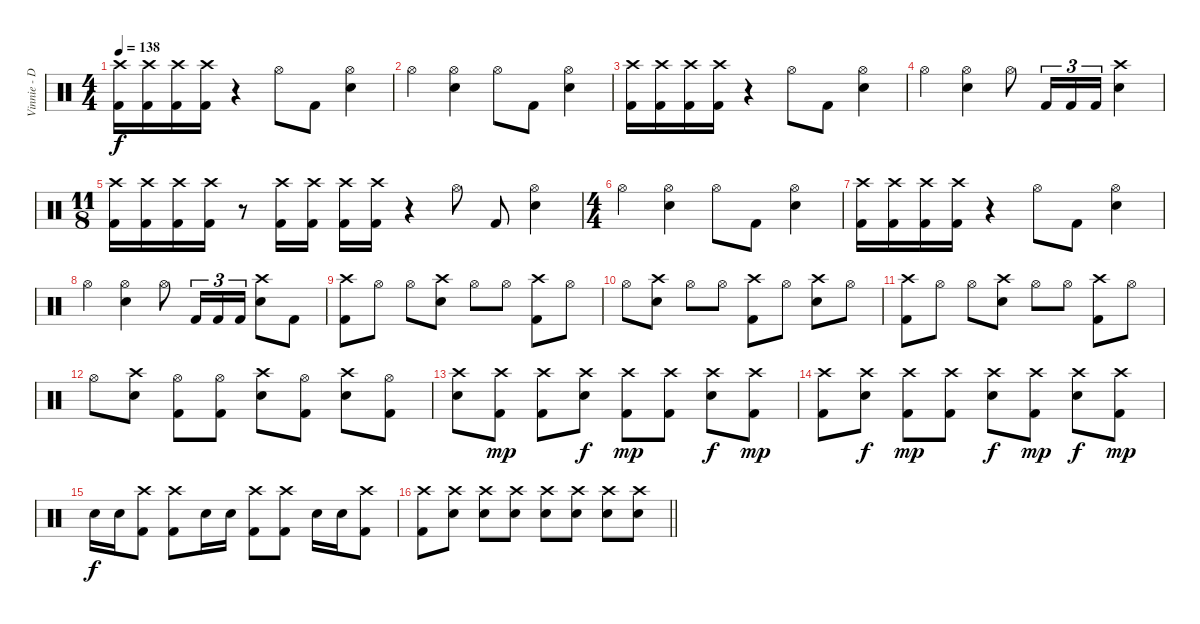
\track ("Vinnie - Drums" "Vinnie - D") {instrument percussion}
\staff {score}
\articulation defaults
\ts (4 4)
\tempo 138
\clef neutral
\ks c
("Crash high (hit)" "Kick (hit) 2").16{dy f} ("Crash high (hit)" "Kick (hit) 2").16 ("Crash high (hit)" "Kick (hit) 2").16 ("Crash high (hit)" "Kick (hit) 2").16 r.4 "Hi-Hat (open)".8 "Kick (hit) 2".8 ("Hi-Hat (open)" "Snare (hit) 2").4 |
"Hi-Hat (open)".4 ("Hi-Hat (open)" "Snare (hit) 2").4 "Hi-Hat (open)".8 "Kick (hit) 2".8 ("Hi-Hat (open)" "Snare (hit) 2").4 |
("Crash high (hit)" "Kick (hit) 2").16 ("Crash high (hit)" "Kick (hit) 2").16 ("Crash high (hit)" "Kick (hit) 2").16 ("Crash high (hit)" "Kick (hit) 2").16 r.4 "Hi-Hat (open)".8 "Kick (hit) 2".8 ("Hi-Hat (open)" "Snare (hit) 2").4 |
"Hi-Hat (open)".4 ("Hi-Hat (open)" "Snare (hit) 2").4 "Hi-Hat (open)".8 "Kick (hit) 2".16{tu (3 2)} "Kick (hit) 2".16{tu (3 2)} "Kick (hit) 2".16{tu (3 2)} ("Crash high (hit)" "Snare (hit) 2").4 |
\ts (11 8)
("Crash high (hit)" "Kick (hit) 2").16 ("Crash high (hit)" "Kick (hit) 2").16 ("Crash high (hit)" "Kick (hit) 2").16 ("Crash high (hit)" "Kick (hit) 2").16 r.8 ("Crash high (hit)" "Kick (hit) 2").16 ("Crash high (hit)" "Kick (hit) 2").16 ("Crash high (hit)" "Kick (hit) 2").16 ("Crash high (hit)" "Kick (hit) 2").16 r.4 "Hi-Hat (open)".8 "Kick (hit) 2".8 ("Hi-Hat (open)" "Snare (hit) 2").4 |
\ts (4 4)
"Hi-Hat (open)".4 ("Hi-Hat (open)" "Snare (hit) 2").4 "Hi-Hat (open)".8 "Kick (hit) 2".8 ("Hi-Hat (open)" "Snare (hit) 2").4 |
("Crash high (hit)" "Kick (hit) 2").16 ("Crash high (hit)" "Kick (hit) 2").16 ("Crash high (hit)" "Kick (hit) 2").16 ("Crash high (hit)" "Kick (hit) 2").16 r.4 "Hi-Hat (open)".8 "Kick (hit) 2".8 ("Hi-Hat (open)" "Snare (hit) 2").4 |
"Hi-Hat (open)".4 ("Hi-Hat (open)" "Snare (hit) 2").4 "Hi-Hat (open)".8 "Kick (hit) 2".16{tu (3 2)} "Kick (hit) 2".16{tu (3 2)} "Kick (hit) 2".16{tu (3 2)} ("Crash high (hit)" "Snare (hit) 2").8 "Kick (hit) 2".8 |
("Crash high (hit)" "Kick (hit) 2").8 "Hi-Hat (open)".8 "Hi-Hat (open)".8 ("Crash high (hit)" "Snare (hit) 2").8 "Hi-Hat (open)".8 "Hi-Hat (open)".8 ("Crash high (hit)" "Kick (hit) 2").8 "Hi-Hat (open)".8 |
"Hi-Hat (open)".8 ("Crash high (hit)" "Snare (hit) 2").8 "Hi-Hat (open)".8 "Hi-Hat (open)".8 ("Crash high (hit)" "Kick (hit) 2").8 "Hi-Hat (open)".8 ("Crash high (hit)" "Snare (hit) 2").8 "Hi-Hat (open)".8 |
("Crash high (hit)" "Kick (hit) 2").8 "Hi-Hat (open)".8 "Hi-Hat (open)".8 ("Crash high (hit)" "Snare (hit) 2").8 "Hi-Hat (open)".8 "Hi-Hat (open)".8 ("Crash high (hit)" "Kick (hit) 2").8 "Hi-Hat (open)".8 |
"Hi-Hat (open)".8 ("Crash high (hit)" "Snare (hit) 2").8 ("Hi-Hat (open)" "Kick (hit) 2").8 ("Hi-Hat (open)" "Kick (hit) 2").8 ("Crash high (hit)" "Snare (hit) 2").8 ("Hi-Hat (open)" "Kick (hit) 2").8 ("Crash high (hit)" "Snare (hit) 2").8 ("Hi-Hat (open)" "Kick (hit) 2").8 |
("Crash high (hit)" "Snare (hit) 2").8 ("Crash high (hit)" "Kick (hit) 2").8{dy mp} ("Crash high (hit)" "Kick (hit) 2").8 ("Crash high (hit)" "Snare (hit) 2").8{dy f} ("Crash high (hit)" "Kick (hit) 2").8{dy mp} ("Crash high (hit)" "Kick (hit) 2").8 ("Crash high (hit)" "Snare (hit) 2").8{dy f} ("Crash high (hit)" "Kick (hit) 2").8{dy mp} |
("Crash high (hit)" "Kick (hit) 2").8 ("Crash high (hit)" "Snare (hit) 2").8{dy f} ("Crash high (hit)" "Kick (hit) 2").8{dy mp} ("Crash high (hit)" "Kick (hit) 2").8 ("Crash high (hit)" "Snare (hit) 2").8{dy f} ("Crash high (hit)" "Kick (hit) 2").8{dy mp} ("Crash high (hit)" "Snare (hit) 2").8{dy f} ("Crash high (hit)" "Kick (hit) 2").8{dy mp} |
"Snare (hit) 2".16{dy f} "Snare (hit) 2".16 ("Crash high (hit)" "Kick (hit) 2").8 ("Crash high (hit)" "Kick (hit) 2").8 "Snare (hit) 2".16 "Snare (hit) 2".16 ("Crash high (hit)" "Kick (hit) 2").8 ("Crash high (hit)" "Kick (hit) 2").8 "Snare (hit) 2".16 "Snare (hit) 2".16 ("Crash high (hit)" "Kick (hit) 2").8 |
\barLineRight lightlight
("Crash high (hit)" "Kick (hit) 2").8 ("Crash high (hit)" "Snare (hit) 2").8 ("Crash high (hit)" "Snare (hit) 2").8 ("Crash high (hit)" "Snare (hit) 2").8 ("Crash high (hit)" "Snare (hit) 2").8 ("Crash high (hit)" "Snare (hit) 2").8 ("Crash high (hit)" "Snare (hit) 2").8 ("Crash high (hit)" "Snare (hit) 2").8
